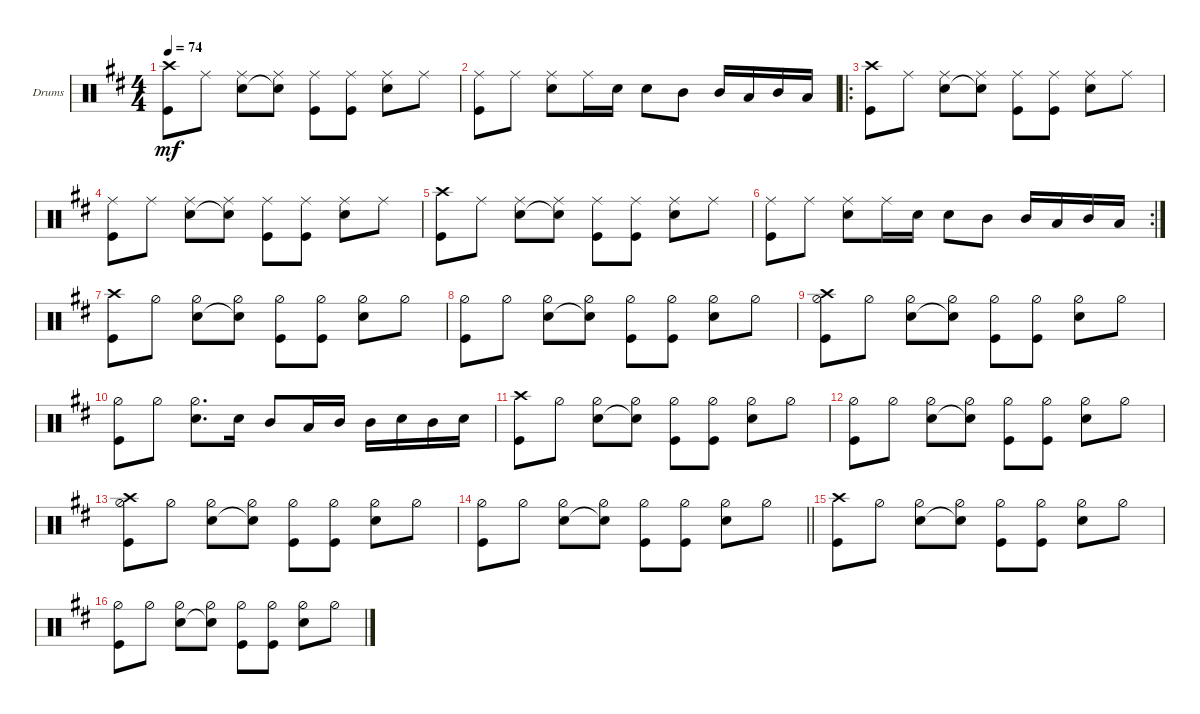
\bracketExtendMode groupsimilarinstruments
\firstSystemTrackNameOrientation horizontal
\otherSystemsTrackNameOrientation horizontal
\track ("Drumkit" "Drums") {instrument percussion}
\staff {score}
\articulation defaults
\ts (4 4)
\tempo 74
\clef neutral
\scale
0.311111
\ks d
("Kick (hit)" "Crash high (hit)").8{dy mf} "Ride (middle)".8 ("Snare (hit) 2" "Ride (middle)").8 ("Snare (hit) 2"{t} "Ride (middle)").8 ("Kick (hit)" "Ride (middle)").8 ("Kick (hit)" "Ride (middle)").8 ("Snare (hit) 2" "Ride (middle)").8 "Ride (middle)".8 |
\scale
0.311111 ("Kick (hit)" "Ride (middle)").8 "Ride (middle)".8 ("Snare (hit) 2" "Ride (middle)").8 "Ride (middle)".16 "Snare (hit) 2".16 "Snare (hit) 2".8 "Mid Tom (hit)".8 "Mid Tom (hit)".16 "Low Tom (hit)".16 "Mid Tom (hit)".16 "Low Tom (hit)".16 |
\ro
\scale
0.377778 ("Kick (hit)" "Crash high (hit)").8 "Ride (middle)".8 ("Snare (hit) 2" "Ride (middle)").8 ("Snare (hit) 2"{t} "Ride (middle)").8 ("Kick (hit)" "Ride (middle)").8 ("Kick (hit)" "Ride (middle)").8 ("Snare (hit) 2" "Ride (middle)").8 "Ride (middle)".8 |
\scale
0.321839 ("Kick (hit)" "Ride (middle)").8 "Ride (middle)".8 ("Snare (hit) 2" "Ride (middle)").8 ("Snare (hit) 2"{t} "Ride (middle)").8 ("Kick (hit)" "Ride (middle)").8 ("Kick (hit)" "Ride (middle)").8 ("Snare (hit) 2" "Ride (middle)").8 "Ride (middle)".8 |
\scale
0.321839 ("Kick (hit)" "Crash high (hit)").8 "Ride (middle)".8 ("Snare (hit) 2" "Ride (middle)").8 ("Snare (hit) 2"{t} "Ride (middle)").8 ("Kick (hit)" "Ride (middle)").8 ("Kick (hit)" "Ride (middle)").8 ("Snare (hit) 2" "Ride (middle)").8 "Ride (middle)".8 |
\rc 2
\scale
0.356322 ("Kick (hit)" "Ride (middle)").8 "Ride (middle)".8 ("Snare (hit) 2" "Ride (middle)").8 "Ride (middle)".16 "Snare (hit) 2".16 "Snare (hit) 2".8 "Mid Tom (hit)".8 "Mid Tom (hit)".16 "Low Tom (hit)".16 "Mid Tom (hit)".16 "Low Tom (hit)".16 |
\scale
0.333333 ("Kick (hit)" "Crash high (hit)").8 "Hi-Hat (half)".8 ("Snare (hit) 2" "Hi-Hat (half)").8 ("Snare (hit) 2"{t} "Hi-Hat (half)").8 ("Kick (hit)" "Hi-Hat (half)").8 ("Kick (hit)" "Hi-Hat (half)").8 ("Snare (hit) 2" "Hi-Hat (half)").8 "Hi-Hat (half)".8 |
\scale
0.333333 ("Kick (hit)" "Hi-Hat (half)").8 "Hi-Hat (half)".8 ("Snare (hit) 2" "Hi-Hat (half)").8 ("Snare (hit) 2"{t} "Hi-Hat (half)").8 ("Kick (hit)" "Hi-Hat (half)").8 ("Kick (hit)" "Hi-Hat (half)").8 ("Snare (hit) 2" "Hi-Hat (half)").8 "Hi-Hat (half)".8 |
\scale
0.333333 ("Kick (hit)" "Hi-Hat (half)" "Crash high (hit)").8 "Hi-Hat (half)".8 ("Snare (hit) 2" "Hi-Hat (half)").8 ("Snare (hit) 2"{t} "Hi-Hat (half)").8 ("Kick (hit)" "Hi-Hat (half)").8 ("Kick (hit)" "Hi-Hat (half)").8 ("Snare (hit) 2" "Hi-Hat (half)").8 "Hi-Hat (half)".8 |
\scale
0.333333 ("Kick (hit)" "Hi-Hat (half)").8 "Hi-Hat (half)".8 ("Snare (hit) 2" "Hi-Hat (half)").8{d} "Snare (hit) 2".16 "Mid Tom (hit)".8 "Low Tom (hit)".16 "Mid Tom (hit)".16 "Mid Tom (hit)".16 "Snare (hit) 2".16 "Mid Tom (hit)".16 "Snare (hit) 2".16 |
\scale
0.333333 ("Kick (hit)" "Crash high (hit)").8 "Hi-Hat (half)".8 ("Snare (hit) 2" "Hi-Hat (half)").8 ("Snare (hit) 2"{t} "Hi-Hat (half)").8 ("Kick (hit)" "Hi-Hat (half)").8 ("Kick (hit)" "Hi-Hat (half)").8 ("Snare (hit) 2" "Hi-Hat (half)").8 "Hi-Hat (half)".8 |
\scale
0.333333 ("Kick (hit)" "Hi-Hat (half)").8 "Hi-Hat (half)".8 ("Snare (hit) 2" "Hi-Hat (half)").8 ("Snare (hit) 2"{t} "Hi-Hat (half)").8 ("Kick (hit)" "Hi-Hat (half)").8 ("Kick (hit)" "Hi-Hat (half)").8 ("Snare (hit) 2" "Hi-Hat (half)").8 "Hi-Hat (half)".8 |
\scale
0.333333 ("Kick (hit)" "Hi-Hat (half)" "Crash high (hit)").8 "Hi-Hat (half)".8 ("Snare (hit) 2" "Hi-Hat (half)").8 ("Snare (hit) 2"{t} "Hi-Hat (half)").8 ("Kick (hit)" "Hi-Hat (half)").8 ("Kick (hit)" "Hi-Hat (half)").8 ("Snare (hit) 2" "Hi-Hat (half)").8 "Hi-Hat (half)".8 |
\scale
0.333333
\barLineRight lightlight
("Kick (hit)" "Hi-Hat (half)").8 "Hi-Hat (half)".8 ("Snare (hit) 2" "Hi-Hat (half)").8 ("Snare (hit) 2"{t} "Hi-Hat (half)").8 ("Kick (hit)" "Hi-Hat (half)").8 ("Kick (hit)" "Hi-Hat (half)").8 ("Snare (hit) 2" "Hi-Hat (half)").8 "Hi-Hat (half)".8 |
\scale
0.333333 ("Kick (hit)" "Crash high (hit)").8 "Hi-Hat (half)".8 ("Snare (hit) 2" "Hi-Hat (half)").8 ("Snare (hit) 2"{t} "Hi-Hat (half)").8 ("Kick (hit)" "Hi-Hat (half)").8 ("Kick (hit)" "Hi-Hat (half)").8 ("Snare (hit) 2" "Hi-Hat (half)").8 "Hi-Hat (half)".8 |
\scale
0.333333 ("Kick (hit)" "Hi-Hat (half)").8 "Hi-Hat (half)".8 ("Snare (hit) 2" "Hi-Hat (half)").8 ("Snare (hit) 2"{t} "Hi-Hat (half)").8 ("Kick (hit)" "Hi-Hat (half)").8 ("Kick (hit)" "Hi-Hat (half)").8 ("Snare (hit) 2" "Hi-Hat (half)").8 "Hi-Hat (half)".8
